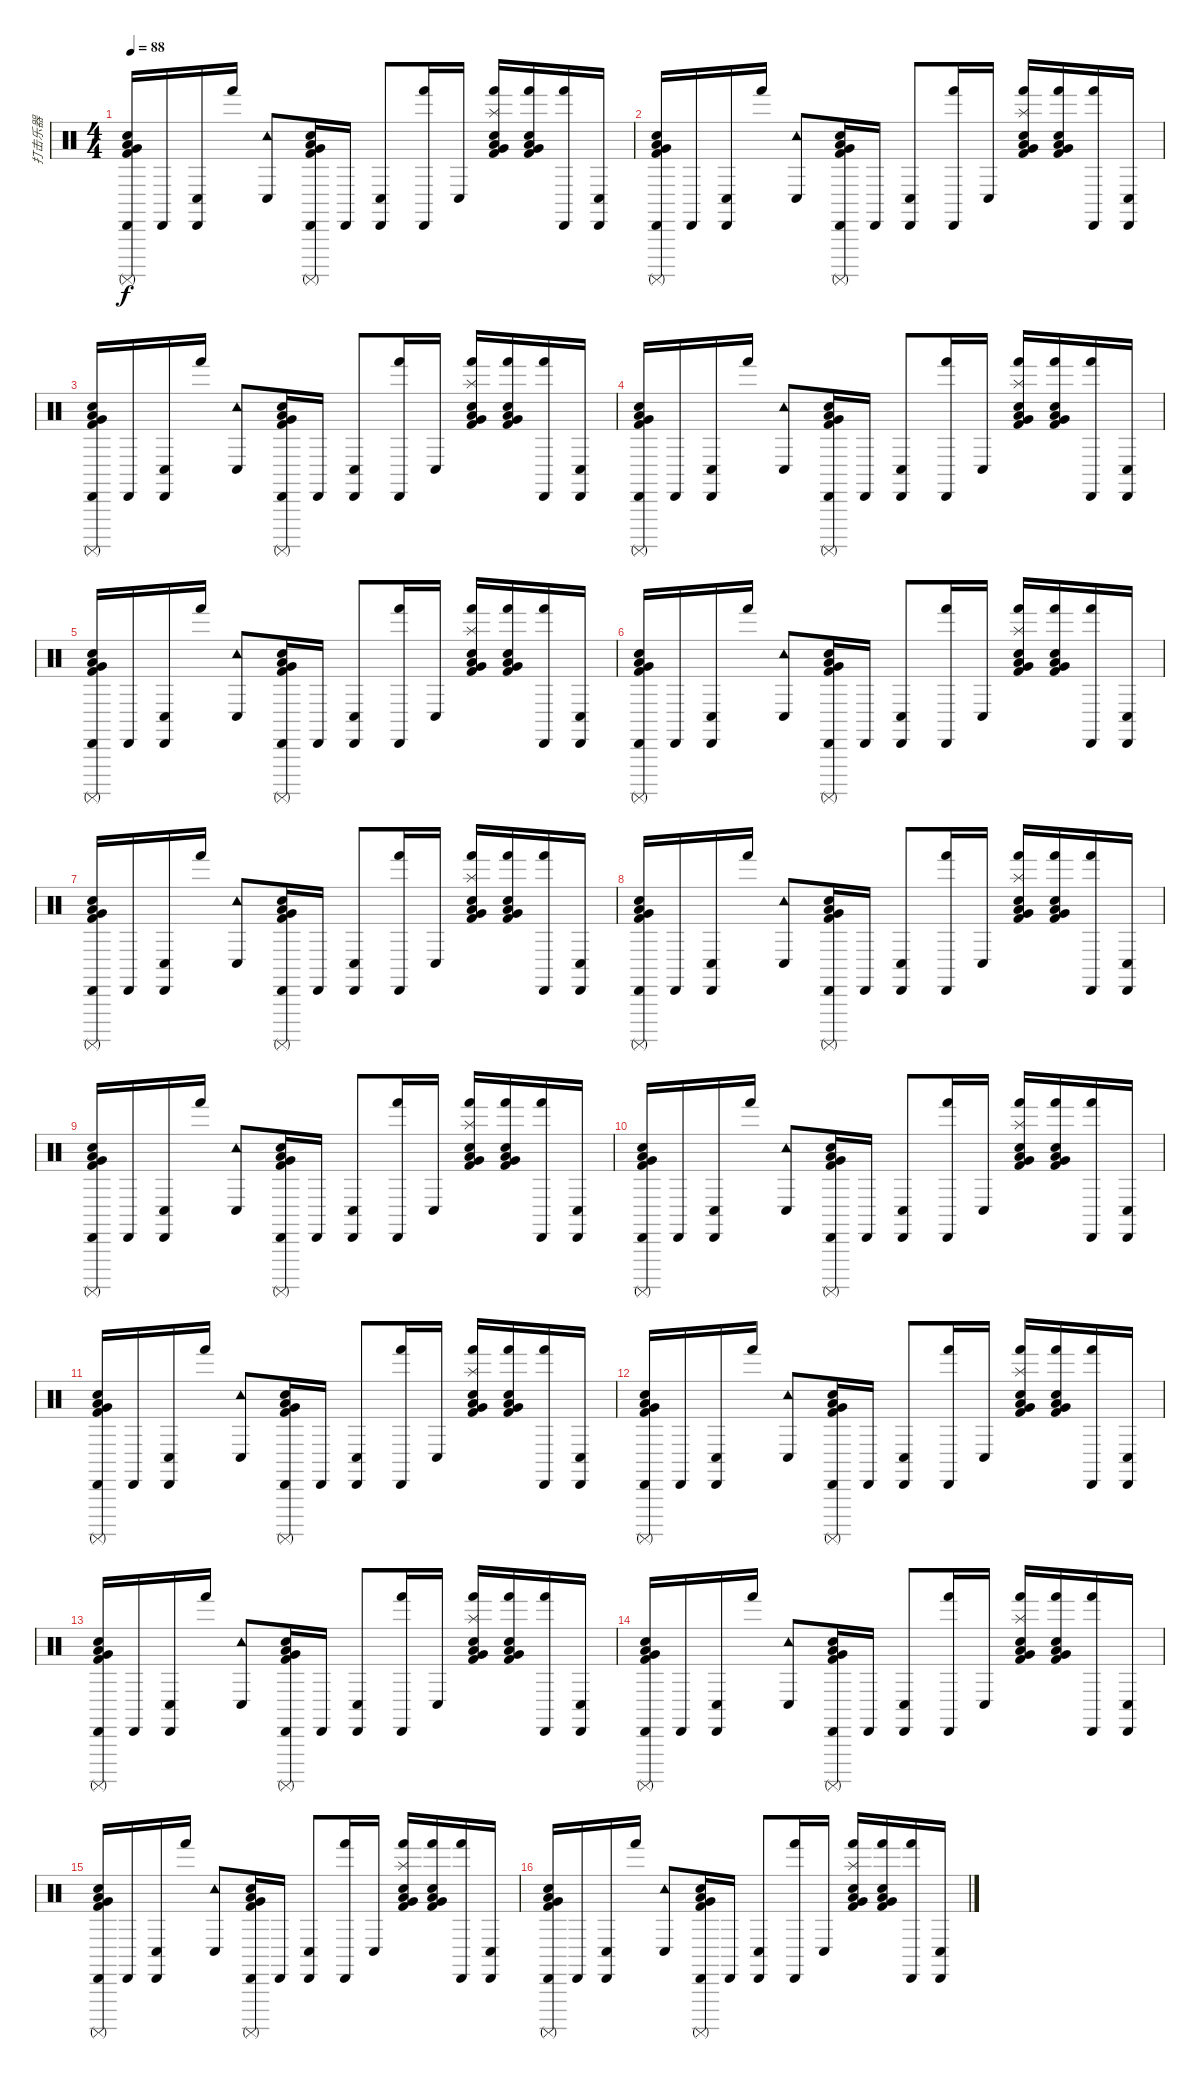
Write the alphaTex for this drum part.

\track ("打击乐器" "打击乐器") {instrument percussion}
\staff {score}
\articulation defaults
\ts (4 4)
\tempo 88
\clef neutral
\ks c
("Cabasa (hit)" "Surdo (mute)" "Electric Snare (hit)" "Very Low Tom (hit)" "Low Floor Tom (hit)" "Kick (hit) 2").16{bu 240 dy f} "Cabasa (hit)".16 ("Cabasa (hit)" "Conga low (hit)").16 "Hand (hit)".16 ("Tambourine (hit)" "Conga low (hit)").8 ("Cabasa (hit)" "Surdo (mute)" "Electric Snare (hit)" "Very Low Tom (hit)" "Low Floor Tom (hit)" "Kick (hit) 2").16{bu 240} "Cabasa (hit)".16 ("Cabasa (hit)" "Conga low (hit)").8 ("Cabasa (hit)" "Hand (hit)").16 "Conga low (hit)".16 ("Splash (hit)" "Hand (hit)" "Electric Snare (hit)" "Very Low Tom (hit)" "Low Floor Tom (hit)" "Kick (hit) 2").16{bu 60} ("Hand (hit)" "Electric Snare (hit)" "Very Low Tom (hit)" "Low Floor Tom (hit)" "Kick (hit) 2").16{bd 60} ("Cabasa (hit)" "Hand (hit)").16 ("Cabasa (hit)" "Conga low (hit)").16 |
("Cabasa (hit)" "Surdo (mute)" "Electric Snare (hit)" "Very Low Tom (hit)" "Low Floor Tom (hit)" "Kick (hit) 2").16{bu 240} "Cabasa (hit)".16 ("Cabasa (hit)" "Conga low (hit)").16 "Hand (hit)".16 ("Tambourine (hit)" "Conga low (hit)").8 ("Cabasa (hit)" "Surdo (mute)" "Electric Snare (hit)" "Very Low Tom (hit)" "Low Floor Tom (hit)" "Kick (hit) 2").16{bd 60} "Cabasa (hit)".16 ("Cabasa (hit)" "Conga low (hit)").8 ("Cabasa (hit)" "Hand (hit)").16 "Conga low (hit)".16 ("Splash (hit)" "Hand (hit)" "Electric Snare (hit)" "Very Low Tom (hit)" "Low Floor Tom (hit)" "Kick (hit) 2").16{bu 60} ("Hand (hit)" "Electric Snare (hit)" "Very Low Tom (hit)" "Low Floor Tom (hit)" "Kick (hit) 2").16{bd 60} ("Cabasa (hit)" "Hand (hit)").16 ("Cabasa (hit)" "Conga low (hit)").16 |
("Cabasa (hit)" "Surdo (mute)" "Electric Snare (hit)" "Very Low Tom (hit)" "Low Floor Tom (hit)" "Kick (hit) 2").16{bu 240} "Cabasa (hit)".16 ("Cabasa (hit)" "Conga low (hit)").16 "Hand (hit)".16 ("Tambourine (hit)" "Conga low (hit)").8 ("Cabasa (hit)" "Surdo (mute)" "Electric Snare (hit)" "Very Low Tom (hit)" "Low Floor Tom (hit)" "Kick (hit) 2").16{bu 240} "Cabasa (hit)".16 ("Cabasa (hit)" "Conga low (hit)").8 ("Cabasa (hit)" "Hand (hit)").16 "Conga low (hit)".16 ("Splash (hit)" "Hand (hit)" "Electric Snare (hit)" "Very Low Tom (hit)" "Low Floor Tom (hit)" "Kick (hit) 2").16{bu 60} ("Hand (hit)" "Electric Snare (hit)" "Very Low Tom (hit)" "Low Floor Tom (hit)" "Kick (hit) 2").16{bd 60} ("Cabasa (hit)" "Hand (hit)").16 ("Cabasa (hit)" "Conga low (hit)").16 |
("Cabasa (hit)" "Surdo (mute)" "Electric Snare (hit)" "Very Low Tom (hit)" "Low Floor Tom (hit)" "Kick (hit) 2").16{bu 240} "Cabasa (hit)".16 ("Cabasa (hit)" "Conga low (hit)").16 "Hand (hit)".16 ("Tambourine (hit)" "Conga low (hit)").8 ("Cabasa (hit)" "Surdo (mute)" "Electric Snare (hit)" "Very Low Tom (hit)" "Low Floor Tom (hit)" "Kick (hit) 2").16{bd 60} "Cabasa (hit)".16 ("Cabasa (hit)" "Conga low (hit)").8 ("Cabasa (hit)" "Hand (hit)").16 "Conga low (hit)".16 ("Splash (hit)" "Hand (hit)" "Electric Snare (hit)" "Very Low Tom (hit)" "Low Floor Tom (hit)" "Kick (hit) 2").16{bu 60} ("Hand (hit)" "Electric Snare (hit)" "Very Low Tom (hit)" "Low Floor Tom (hit)" "Kick (hit) 2").16{bd 60} ("Cabasa (hit)" "Hand (hit)").16 ("Cabasa (hit)" "Conga low (hit)").16 |
("Cabasa (hit)" "Surdo (mute)" "Electric Snare (hit)" "Very Low Tom (hit)" "Low Floor Tom (hit)" "Kick (hit) 2").16{bu 240} "Cabasa (hit)".16 ("Cabasa (hit)" "Conga low (hit)").16 "Hand (hit)".16 ("Tambourine (hit)" "Conga low (hit)").8 ("Cabasa (hit)" "Surdo (mute)" "Electric Snare (hit)" "Very Low Tom (hit)" "Low Floor Tom (hit)" "Kick (hit) 2").16{bu 240} "Cabasa (hit)".16 ("Cabasa (hit)" "Conga low (hit)").8 ("Cabasa (hit)" "Hand (hit)").16 "Conga low (hit)".16 ("Splash (hit)" "Hand (hit)" "Electric Snare (hit)" "Very Low Tom (hit)" "Low Floor Tom (hit)" "Kick (hit) 2").16{bu 60} ("Hand (hit)" "Electric Snare (hit)" "Very Low Tom (hit)" "Low Floor Tom (hit)" "Kick (hit) 2").16{bd 60} ("Cabasa (hit)" "Hand (hit)").16 ("Cabasa (hit)" "Conga low (hit)").16 |
("Cabasa (hit)" "Surdo (mute)" "Electric Snare (hit)" "Very Low Tom (hit)" "Low Floor Tom (hit)" "Kick (hit) 2").16{bu 240} "Cabasa (hit)".16 ("Cabasa (hit)" "Conga low (hit)").16 "Hand (hit)".16 ("Tambourine (hit)" "Conga low (hit)").8 ("Cabasa (hit)" "Surdo (mute)" "Electric Snare (hit)" "Very Low Tom (hit)" "Low Floor Tom (hit)" "Kick (hit) 2").16{bd 60} "Cabasa (hit)".16 ("Cabasa (hit)" "Conga low (hit)").8 ("Cabasa (hit)" "Hand (hit)").16 "Conga low (hit)".16 ("Splash (hit)" "Hand (hit)" "Electric Snare (hit)" "Very Low Tom (hit)" "Low Floor Tom (hit)" "Kick (hit) 2").16{bu 60} ("Hand (hit)" "Electric Snare (hit)" "Very Low Tom (hit)" "Low Floor Tom (hit)" "Kick (hit) 2").16{bd 60} ("Cabasa (hit)" "Hand (hit)").16 ("Cabasa (hit)" "Conga low (hit)").16 |
("Cabasa (hit)" "Surdo (mute)" "Electric Snare (hit)" "Very Low Tom (hit)" "Low Floor Tom (hit)" "Kick (hit) 2").16{bu 240} "Cabasa (hit)".16 ("Cabasa (hit)" "Conga low (hit)").16 "Hand (hit)".16 ("Tambourine (hit)" "Conga low (hit)").8 ("Cabasa (hit)" "Surdo (mute)" "Electric Snare (hit)" "Very Low Tom (hit)" "Low Floor Tom (hit)" "Kick (hit) 2").16{bu 240} "Cabasa (hit)".16 ("Cabasa (hit)" "Conga low (hit)").8 ("Cabasa (hit)" "Hand (hit)").16 "Conga low (hit)".16 ("Splash (hit)" "Hand (hit)" "Electric Snare (hit)" "Very Low Tom (hit)" "Low Floor Tom (hit)" "Kick (hit) 2").16{bu 60} ("Hand (hit)" "Electric Snare (hit)" "Very Low Tom (hit)" "Low Floor Tom (hit)" "Kick (hit) 2").16{bd 60} ("Cabasa (hit)" "Hand (hit)").16 ("Cabasa (hit)" "Conga low (hit)").16 |
("Cabasa (hit)" "Surdo (mute)" "Electric Snare (hit)" "Very Low Tom (hit)" "Low Floor Tom (hit)" "Kick (hit) 2").16{bu 240} "Cabasa (hit)".16 ("Cabasa (hit)" "Conga low (hit)").16 "Hand (hit)".16 ("Tambourine (hit)" "Conga low (hit)").8 ("Cabasa (hit)" "Surdo (mute)" "Electric Snare (hit)" "Very Low Tom (hit)" "Low Floor Tom (hit)" "Kick (hit) 2").16{bd 60} "Cabasa (hit)".16 ("Cabasa (hit)" "Conga low (hit)").8 ("Cabasa (hit)" "Hand (hit)").16 "Conga low (hit)".16 ("Splash (hit)" "Hand (hit)" "Electric Snare (hit)" "Very Low Tom (hit)" "Low Floor Tom (hit)" "Kick (hit) 2").16{bu 60} ("Hand (hit)" "Electric Snare (hit)" "Very Low Tom (hit)" "Low Floor Tom (hit)" "Kick (hit) 2").16{bd 60} ("Cabasa (hit)" "Hand (hit)").16 ("Cabasa (hit)" "Conga low (hit)").16 |
("Cabasa (hit)" "Surdo (mute)" "Electric Snare (hit)" "Very Low Tom (hit)" "Low Floor Tom (hit)" "Kick (hit) 2").16{bu 240} "Cabasa (hit)".16 ("Cabasa (hit)" "Conga low (hit)").16 "Hand (hit)".16 ("Tambourine (hit)" "Conga low (hit)").8 ("Cabasa (hit)" "Surdo (mute)" "Electric Snare (hit)" "Very Low Tom (hit)" "Low Floor Tom (hit)" "Kick (hit) 2").16{bu 240} "Cabasa (hit)".16 ("Cabasa (hit)" "Conga low (hit)").8 ("Cabasa (hit)" "Hand (hit)").16 "Conga low (hit)".16 ("Splash (hit)" "Hand (hit)" "Electric Snare (hit)" "Very Low Tom (hit)" "Low Floor Tom (hit)" "Kick (hit) 2").16{bu 60} ("Hand (hit)" "Electric Snare (hit)" "Very Low Tom (hit)" "Low Floor Tom (hit)" "Kick (hit) 2").16{bd 60} ("Cabasa (hit)" "Hand (hit)").16 ("Cabasa (hit)" "Conga low (hit)").16 |
("Cabasa (hit)" "Surdo (mute)" "Electric Snare (hit)" "Very Low Tom (hit)" "Low Floor Tom (hit)" "Kick (hit) 2").16{bu 240} "Cabasa (hit)".16 ("Cabasa (hit)" "Conga low (hit)").16 "Hand (hit)".16 ("Tambourine (hit)" "Conga low (hit)").8 ("Cabasa (hit)" "Surdo (mute)" "Electric Snare (hit)" "Very Low Tom (hit)" "Low Floor Tom (hit)" "Kick (hit) 2").16{bd 60} "Cabasa (hit)".16 ("Cabasa (hit)" "Conga low (hit)").8 ("Cabasa (hit)" "Hand (hit)").16 "Conga low (hit)".16 ("Splash (hit)" "Hand (hit)" "Electric Snare (hit)" "Very Low Tom (hit)" "Low Floor Tom (hit)" "Kick (hit) 2").16{bu 60} ("Hand (hit)" "Electric Snare (hit)" "Very Low Tom (hit)" "Low Floor Tom (hit)" "Kick (hit) 2").16{bd 60} ("Cabasa (hit)" "Hand (hit)").16 ("Cabasa (hit)" "Conga low (hit)").16 |
("Cabasa (hit)" "Surdo (mute)" "Electric Snare (hit)" "Very Low Tom (hit)" "Low Floor Tom (hit)" "Kick (hit) 2").16{bu 240} "Cabasa (hit)".16 ("Cabasa (hit)" "Conga low (hit)").16 "Hand (hit)".16 ("Tambourine (hit)" "Conga low (hit)").8 ("Cabasa (hit)" "Surdo (mute)" "Electric Snare (hit)" "Very Low Tom (hit)" "Low Floor Tom (hit)" "Kick (hit) 2").16{bu 240} "Cabasa (hit)".16 ("Cabasa (hit)" "Conga low (hit)").8 ("Cabasa (hit)" "Hand (hit)").16 "Conga low (hit)".16 ("Splash (hit)" "Hand (hit)" "Electric Snare (hit)" "Very Low Tom (hit)" "Low Floor Tom (hit)" "Kick (hit) 2").16{bu 60} ("Hand (hit)" "Electric Snare (hit)" "Very Low Tom (hit)" "Low Floor Tom (hit)" "Kick (hit) 2").16{bd 60} ("Cabasa (hit)" "Hand (hit)").16 ("Cabasa (hit)" "Conga low (hit)").16 |
("Cabasa (hit)" "Surdo (mute)" "Electric Snare (hit)" "Very Low Tom (hit)" "Low Floor Tom (hit)" "Kick (hit) 2").16{bu 240} "Cabasa (hit)".16 ("Cabasa (hit)" "Conga low (hit)").16 "Hand (hit)".16 ("Tambourine (hit)" "Conga low (hit)").8 ("Cabasa (hit)" "Surdo (mute)" "Electric Snare (hit)" "Very Low Tom (hit)" "Low Floor Tom (hit)" "Kick (hit) 2").16{bd 60} "Cabasa (hit)".16 ("Cabasa (hit)" "Conga low (hit)").8 ("Cabasa (hit)" "Hand (hit)").16 "Conga low (hit)".16 ("Splash (hit)" "Hand (hit)" "Electric Snare (hit)" "Very Low Tom (hit)" "Low Floor Tom (hit)" "Kick (hit) 2").16{bu 60} ("Hand (hit)" "Electric Snare (hit)" "Very Low Tom (hit)" "Low Floor Tom (hit)" "Kick (hit) 2").16{bd 60} ("Cabasa (hit)" "Hand (hit)").16 ("Cabasa (hit)" "Conga low (hit)").16 |
("Cabasa (hit)" "Surdo (mute)" "Electric Snare (hit)" "Very Low Tom (hit)" "Low Floor Tom (hit)" "Kick (hit) 2").16{bu 240} "Cabasa (hit)".16 ("Cabasa (hit)" "Conga low (hit)").16 "Hand (hit)".16 ("Tambourine (hit)" "Conga low (hit)").8 ("Cabasa (hit)" "Surdo (mute)" "Electric Snare (hit)" "Very Low Tom (hit)" "Low Floor Tom (hit)" "Kick (hit) 2").16{bu 240} "Cabasa (hit)".16 ("Cabasa (hit)" "Conga low (hit)").8 ("Cabasa (hit)" "Hand (hit)").16 "Conga low (hit)".16 ("Splash (hit)" "Hand (hit)" "Electric Snare (hit)" "Very Low Tom (hit)" "Low Floor Tom (hit)" "Kick (hit) 2").16{bu 60} ("Hand (hit)" "Electric Snare (hit)" "Very Low Tom (hit)" "Low Floor Tom (hit)" "Kick (hit) 2").16{bd 60} ("Cabasa (hit)" "Hand (hit)").16 ("Cabasa (hit)" "Conga low (hit)").16 |
("Cabasa (hit)" "Surdo (mute)" "Electric Snare (hit)" "Very Low Tom (hit)" "Low Floor Tom (hit)" "Kick (hit) 2").16{bu 240} "Cabasa (hit)".16 ("Cabasa (hit)" "Conga low (hit)").16 "Hand (hit)".16 ("Tambourine (hit)" "Conga low (hit)").8 ("Cabasa (hit)" "Surdo (mute)" "Electric Snare (hit)" "Very Low Tom (hit)" "Low Floor Tom (hit)" "Kick (hit) 2").16{bd 60} "Cabasa (hit)".16 ("Cabasa (hit)" "Conga low (hit)").8 ("Cabasa (hit)" "Hand (hit)").16 "Conga low (hit)".16 ("Splash (hit)" "Hand (hit)" "Electric Snare (hit)" "Very Low Tom (hit)" "Low Floor Tom (hit)" "Kick (hit) 2").16{bu 60} ("Hand (hit)" "Electric Snare (hit)" "Very Low Tom (hit)" "Low Floor Tom (hit)" "Kick (hit) 2").16{bd 60} ("Cabasa (hit)" "Hand (hit)").16 ("Cabasa (hit)" "Conga low (hit)").16 |
("Cabasa (hit)" "Surdo (mute)" "Electric Snare (hit)" "Very Low Tom (hit)" "Low Floor Tom (hit)" "Kick (hit) 2").16{bu 240} "Cabasa (hit)".16 ("Cabasa (hit)" "Conga low (hit)").16 "Hand (hit)".16 ("Tambourine (hit)" "Conga low (hit)").8 ("Cabasa (hit)" "Surdo (mute)" "Electric Snare (hit)" "Very Low Tom (hit)" "Low Floor Tom (hit)" "Kick (hit) 2").16{bu 240} "Cabasa (hit)".16 ("Cabasa (hit)" "Conga low (hit)").8 ("Cabasa (hit)" "Hand (hit)").16 "Conga low (hit)".16 ("Splash (hit)" "Hand (hit)" "Electric Snare (hit)" "Very Low Tom (hit)" "Low Floor Tom (hit)" "Kick (hit) 2").16{bu 60} ("Hand (hit)" "Electric Snare (hit)" "Very Low Tom (hit)" "Low Floor Tom (hit)" "Kick (hit) 2").16{bd 60} ("Cabasa (hit)" "Hand (hit)").16 ("Cabasa (hit)" "Conga low (hit)").16 |
("Cabasa (hit)" "Surdo (mute)" "Electric Snare (hit)" "Very Low Tom (hit)" "Low Floor Tom (hit)" "Kick (hit) 2").16{bu 240} "Cabasa (hit)".16 ("Cabasa (hit)" "Conga low (hit)").16 "Hand (hit)".16 ("Tambourine (hit)" "Conga low (hit)").8 ("Cabasa (hit)" "Surdo (mute)" "Electric Snare (hit)" "Very Low Tom (hit)" "Low Floor Tom (hit)" "Kick (hit) 2").16{bd 60} "Cabasa (hit)".16 ("Cabasa (hit)" "Conga low (hit)").8 ("Cabasa (hit)" "Hand (hit)").16 "Conga low (hit)".16 ("Splash (hit)" "Hand (hit)" "Electric Snare (hit)" "Very Low Tom (hit)" "Low Floor Tom (hit)" "Kick (hit) 2").16{bu 60} ("Hand (hit)" "Electric Snare (hit)" "Very Low Tom (hit)" "Low Floor Tom (hit)" "Kick (hit) 2").16{bd 60} ("Cabasa (hit)" "Hand (hit)").16 ("Cabasa (hit)" "Conga low (hit)").16
